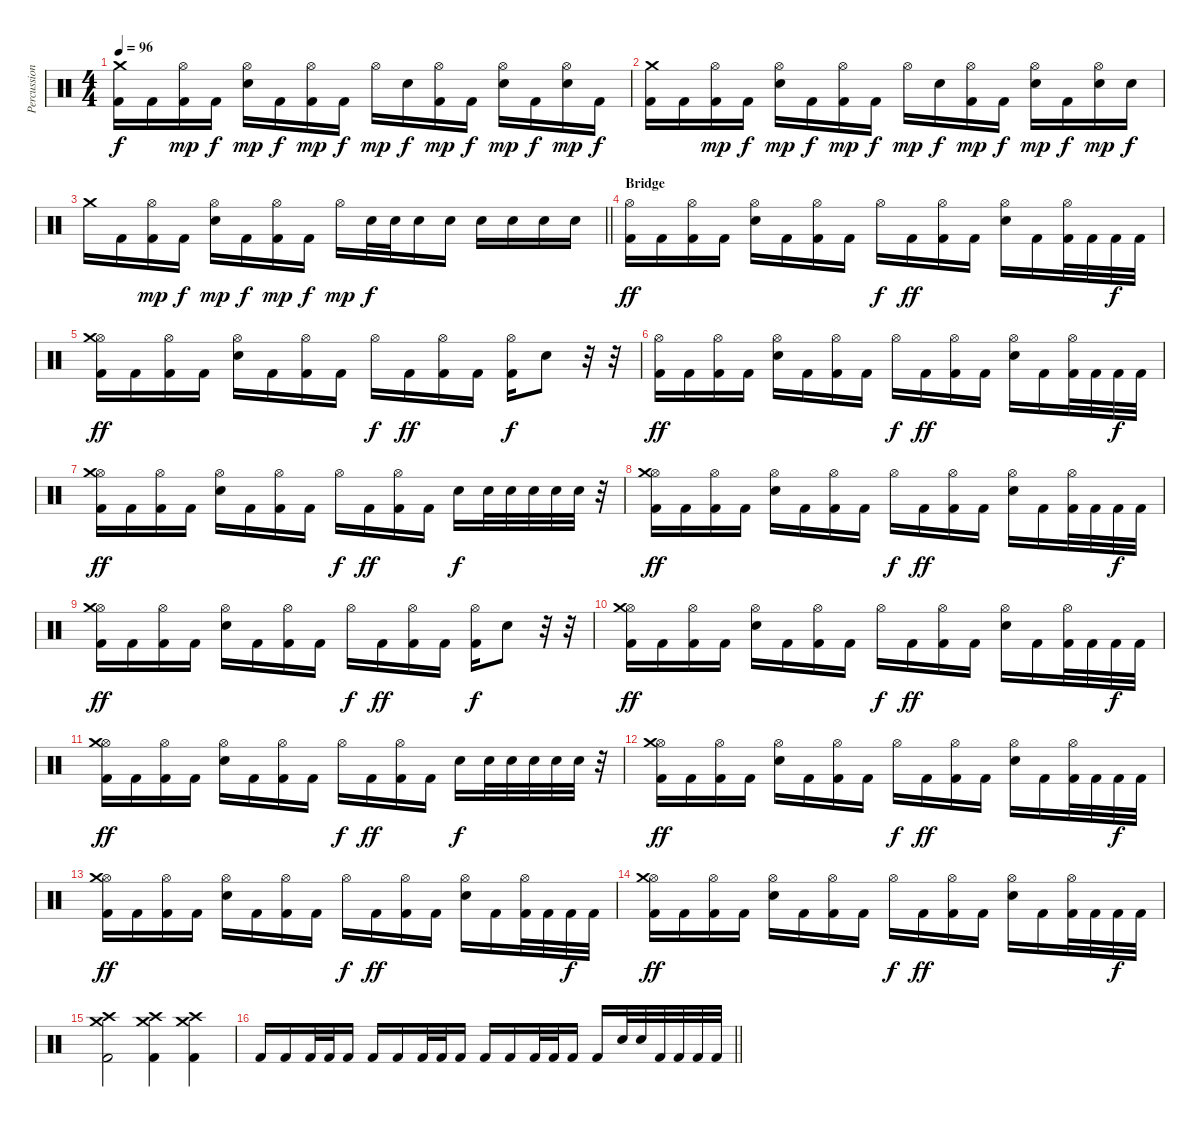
\track ("Percussion" "Percussion") {instrument percussion}
\staff {score}
\articulation defaults
\ts (4 4)
\tempo 96
\clef neutral
\ks c
("Crash medium (hit)" "Kick (hit) 2").16{dy f} "Kick (hit) 2".16 ("Hi-Hat (open)" "Kick (hit) 2").16{dy mp} "Kick (hit) 2".16{dy f} ("Hi-Hat (open)" "Electric Snare (hit)").16{dy mp} "Kick (hit) 2".16{dy f} ("Hi-Hat (open)" "Kick (hit) 2").16{dy mp} "Kick (hit) 2".16{dy f} "Hi-Hat (open)".16{dy mp} "Electric Snare (hit)".16{dy f} ("Hi-Hat (open)" "Kick (hit) 2").16{dy mp} "Kick (hit) 2".16{dy f} ("Hi-Hat (open)" "Electric Snare (hit)").16{dy mp} "Kick (hit) 2".16{dy f} ("Hi-Hat (open)" "Electric Snare (hit)").16{dy mp} "Kick (hit) 2".16{dy f} |
("Crash medium (hit)" "Kick (hit) 2").16 "Kick (hit) 2".16 ("Hi-Hat (open)" "Kick (hit) 2").16{dy mp} "Kick (hit) 2".16{dy f} ("Hi-Hat (open)" "Electric Snare (hit)").16{dy mp} "Kick (hit) 2".16{dy f} ("Hi-Hat (open)" "Kick (hit) 2").16{dy mp} "Kick (hit) 2".16{dy f} "Hi-Hat (open)".16{dy mp} "Electric Snare (hit)".16{dy f} ("Hi-Hat (open)" "Kick (hit) 2").16{dy mp} "Kick (hit) 2".16{dy f} ("Hi-Hat (open)" "Electric Snare (hit)").16{dy mp} "Kick (hit) 2".16{dy f} ("Hi-Hat (open)" "Electric Snare (hit)").16{dy mp} "Electric Snare (hit)".16{dy f} |
\barLineRight lightlight "Crash medium (hit)".16 "Kick (hit) 2".16
("Hi-Hat (open)" "Kick (hit) 2").16{dy mp} "Kick (hit) 2".16{dy f} ("Hi-Hat (open)" "Electric Snare (hit)").16{dy mp} "Kick (hit) 2".16{dy f} ("Hi-Hat (open)" "Kick (hit) 2").16{dy mp} "Kick (hit) 2".16{dy f} "Hi-Hat (open)".16{dy mp} "Electric Snare (hit)".32{dy f} "Electric Snare (hit)".32 "Electric Snare (hit)".16 "Electric Snare (hit)".16 "Electric Snare (hit)".16 "Electric Snare (hit)".16 "Electric Snare (hit)".16 "Electric Snare (hit)".16 |
\section ("" "Bridge")
("Hi-Hat (open)" "Kick (hit) 2").16{dy ff} "Kick (hit) 2".16 ("Hi-Hat (open)" "Kick (hit) 2").16 "Kick (hit) 2".16 ("Hi-Hat (open)" "Electric Snare (hit)").16 "Kick (hit) 2".16 ("Hi-Hat (open)" "Kick (hit) 2").16 "Kick (hit) 2".16 "Hi-Hat (open)".16{dy f} "Kick (hit) 2".16{dy ff} ("Hi-Hat (open)" "Kick (hit) 2").16 "Kick (hit) 2".16 ("Hi-Hat (open)" "Electric Snare (hit)").16 "Kick (hit) 2".16 ("Hi-Hat (open)" "Kick (hit) 2").32 "Kick (hit) 2".32 "Kick (hit) 2".32{dy f} "Kick (hit) 2".32 |
("Hi-Hat (open)" "Crash medium (hit)" "Kick (hit) 2").16{dy ff} "Kick (hit) 2".16 ("Hi-Hat (open)" "Kick (hit) 2").16 "Kick (hit) 2".16 ("Hi-Hat (open)" "Electric Snare (hit)").16 "Kick (hit) 2".16 ("Hi-Hat (open)" "Kick (hit) 2").16 "Kick (hit) 2".16 "Hi-Hat (open)".16{dy f} "Kick (hit) 2".16{dy ff} ("Hi-Hat (open)" "Kick (hit) 2").16 "Kick (hit) 2".16 ("Hi-Hat (open)" "Kick (hit) 2").16{dy f} "Electric Snare (hit)".8 r.32 r.32 |
("Hi-Hat (open)" "Kick (hit) 2").16{dy ff} "Kick (hit) 2".16 ("Hi-Hat (open)" "Kick (hit) 2").16 "Kick (hit) 2".16 ("Hi-Hat (open)" "Electric Snare (hit)").16 "Kick (hit) 2".16 ("Hi-Hat (open)" "Kick (hit) 2").16 "Kick (hit) 2".16 "Hi-Hat (open)".16{dy f} "Kick (hit) 2".16{dy ff} ("Hi-Hat (open)" "Kick (hit) 2").16 "Kick (hit) 2".16 ("Hi-Hat (open)" "Electric Snare (hit)").16 "Kick (hit) 2".16 ("Hi-Hat (open)" "Kick (hit) 2").32 "Kick (hit) 2".32 "Kick (hit) 2".32{dy f} "Kick (hit) 2".32 |
("Hi-Hat (open)" "Crash medium (hit)" "Kick (hit) 2").16{dy ff} "Kick (hit) 2".16 ("Hi-Hat (open)" "Kick (hit) 2").16 "Kick (hit) 2".16 ("Hi-Hat (open)" "Electric Snare (hit)").16 "Kick (hit) 2".16 ("Hi-Hat (open)" "Kick (hit) 2").16 "Kick (hit) 2".16 "Hi-Hat (open)".16{dy f} "Kick (hit) 2".16{dy ff} ("Hi-Hat (open)" "Kick (hit) 2").16 "Kick (hit) 2".16 "Electric Snare (hit)".16{dy f} "Electric Snare (hit)".32 "Electric Snare (hit)".32 "Electric Snare (hit)".32 "Electric Snare (hit)".32 "Electric Snare (hit)".32 r.32 |
("Hi-Hat (open)" "Crash medium (hit)" "Kick (hit) 2").16{dy ff} "Kick (hit) 2".16 ("Hi-Hat (open)" "Kick (hit) 2").16 "Kick (hit) 2".16 ("Hi-Hat (open)" "Electric Snare (hit)").16 "Kick (hit) 2".16 ("Hi-Hat (open)" "Kick (hit) 2").16 "Kick (hit) 2".16 "Hi-Hat (open)".16{dy f} "Kick (hit) 2".16{dy ff} ("Hi-Hat (open)" "Kick (hit) 2").16 "Kick (hit) 2".16 ("Hi-Hat (open)" "Electric Snare (hit)").16 "Kick (hit) 2".16 ("Hi-Hat (open)" "Kick (hit) 2").32 "Kick (hit) 2".32 "Kick (hit) 2".32{dy f} "Kick (hit) 2".32 |
("Hi-Hat (open)" "Crash medium (hit)" "Kick (hit) 2").16{dy ff} "Kick (hit) 2".16 ("Hi-Hat (open)" "Kick (hit) 2").16 "Kick (hit) 2".16 ("Hi-Hat (open)" "Electric Snare (hit)").16 "Kick (hit) 2".16 ("Hi-Hat (open)" "Kick (hit) 2").16 "Kick (hit) 2".16 "Hi-Hat (open)".16{dy f} "Kick (hit) 2".16{dy ff} ("Hi-Hat (open)" "Kick (hit) 2").16 "Kick (hit) 2".16 ("Hi-Hat (open)" "Kick (hit) 2").16{dy f} "Electric Snare (hit)".8 r.32 r.32 |
("Hi-Hat (open)" "Crash medium (hit)" "Kick (hit) 2").16{dy ff} "Kick (hit) 2".16 ("Hi-Hat (open)" "Kick (hit) 2").16 "Kick (hit) 2".16 ("Hi-Hat (open)" "Electric Snare (hit)").16 "Kick (hit) 2".16 ("Hi-Hat (open)" "Kick (hit) 2").16 "Kick (hit) 2".16 "Hi-Hat (open)".16{dy f} "Kick (hit) 2".16{dy ff} ("Hi-Hat (open)" "Kick (hit) 2").16 "Kick (hit) 2".16 ("Hi-Hat (open)" "Electric Snare (hit)").16 "Kick (hit) 2".16 ("Hi-Hat (open)" "Kick (hit) 2").32 "Kick (hit) 2".32 "Kick (hit) 2".32{dy f} "Kick (hit) 2".32 |
("Hi-Hat (open)" "Crash medium (hit)" "Kick (hit) 2").16{dy ff} "Kick (hit) 2".16 ("Hi-Hat (open)" "Kick (hit) 2").16 "Kick (hit) 2".16 ("Hi-Hat (open)" "Electric Snare (hit)").16 "Kick (hit) 2".16 ("Hi-Hat (open)" "Kick (hit) 2").16 "Kick (hit) 2".16 "Hi-Hat (open)".16{dy f} "Kick (hit) 2".16{dy ff} ("Hi-Hat (open)" "Kick (hit) 2").16 "Kick (hit) 2".16 "Electric Snare (hit)".16{dy f} "Electric Snare (hit)".32 "Electric Snare (hit)".32 "Electric Snare (hit)".32 "Electric Snare (hit)".32 "Electric Snare (hit)".32 r.32 |
("Hi-Hat (open)" "Crash medium (hit)" "Kick (hit) 2").16{dy ff} "Kick (hit) 2".16 ("Hi-Hat (open)" "Kick (hit) 2").16 "Kick (hit) 2".16 ("Hi-Hat (open)" "Electric Snare (hit)").16 "Kick (hit) 2".16 ("Hi-Hat (open)" "Kick (hit) 2").16 "Kick (hit) 2".16 "Hi-Hat (open)".16{dy f} "Kick (hit) 2".16{dy ff} ("Hi-Hat (open)" "Kick (hit) 2").16 "Kick (hit) 2".16 ("Hi-Hat (open)" "Electric Snare (hit)").16 "Kick (hit) 2".16 ("Hi-Hat (open)" "Kick (hit) 2").32 "Kick (hit) 2".32 "Kick (hit) 2".32{dy f} "Kick (hit) 2".32 |
("Hi-Hat (open)" "Crash medium (hit)" "Kick (hit) 2").16{dy ff} "Kick (hit) 2".16 ("Hi-Hat (open)" "Kick (hit) 2").16 "Kick (hit) 2".16 ("Hi-Hat (open)" "Electric Snare (hit)").16 "Kick (hit) 2".16 ("Hi-Hat (open)" "Kick (hit) 2").16 "Kick (hit) 2".16 "Hi-Hat (open)".16{dy f} "Kick (hit) 2".16{dy ff} ("Hi-Hat (open)" "Kick (hit) 2").16 "Kick (hit) 2".16 ("Hi-Hat (open)" "Electric Snare (hit)").16 "Kick (hit) 2".16 ("Hi-Hat (open)" "Kick (hit) 2").32 "Kick (hit) 2".32 "Kick (hit) 2".32{dy f} "Kick (hit) 2".32 |
("Hi-Hat (open)" "Crash medium (hit)" "Kick (hit) 2").16{dy ff} "Kick (hit) 2".16 ("Hi-Hat (open)" "Kick (hit) 2").16 "Kick (hit) 2".16 ("Hi-Hat (open)" "Electric Snare (hit)").16 "Kick (hit) 2".16 ("Hi-Hat (open)" "Kick (hit) 2").16 "Kick (hit) 2".16 "Hi-Hat (open)".16{dy f} "Kick (hit) 2".16{dy ff} ("Hi-Hat (open)" "Kick (hit) 2").16 "Kick (hit) 2".16 ("Hi-Hat (open)" "Electric Snare (hit)").16 "Kick (hit) 2".16 ("Hi-Hat (open)" "Kick (hit) 2").32 "Kick (hit) 2".32 "Kick (hit) 2".32{dy f} "Kick (hit) 2".32 |
("Crash medium (hit)" "Crash high (hit)" "Kick (hit) 2").2 ("Crash high (hit)" "Crash medium (hit)" "Kick (hit) 2").4 ("Crash medium (hit)" "Crash high (hit)" "Kick (hit) 2").4 |
\barLineRight lightlight "Kick (hit) 2".16 "Kick (hit) 2".16 "Kick (hit) 2".32 "Kick (hit) 2".32 "Kick (hit) 2".16 "Kick (hit) 2".16 "Kick (hit) 2".16 "Kick (hit) 2".32 "Kick (hit) 2".32 "Kick (hit) 2".16 "Kick (hit) 2".16 "Kick (hit) 2".16 "Kick (hit) 2".32 "Kick (hit) 2".32 "Kick (hit) 2".16 "Kick (hit) 2".16 "Electric Snare (hit)".32 "Electric Snare (hit)".32 "Kick (hit) 2".32 "Kick (hit) 2".32 "Kick (hit) 2".32 "Kick (hit) 2".32
